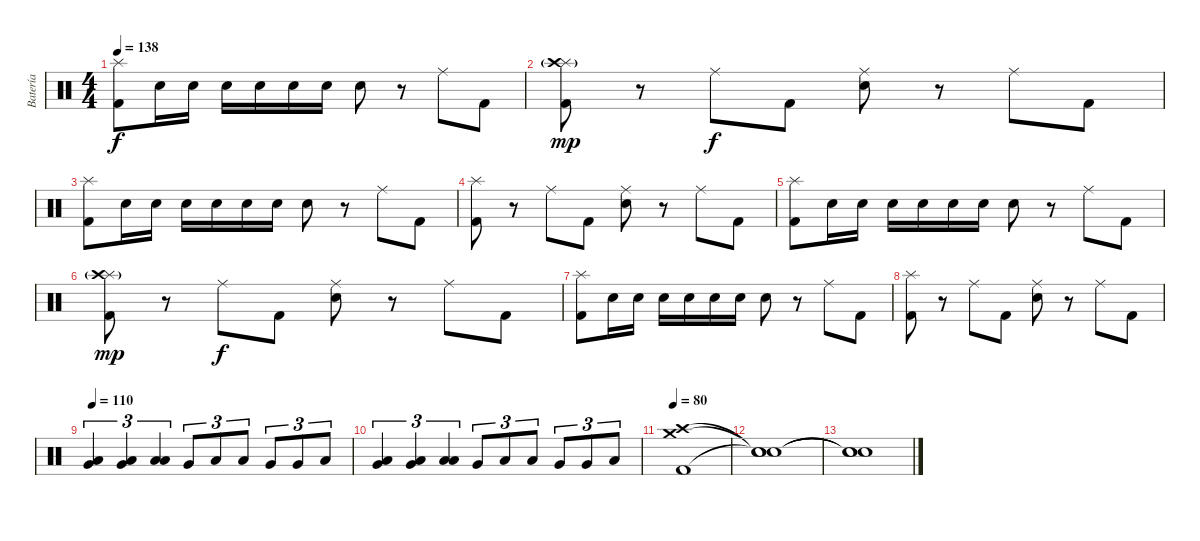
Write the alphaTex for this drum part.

\track ("Batería" "Batería") {instrument percussion}
\staff {score}
\articulation defaults
\ts (4 4)
\tempo 138
\clef neutral
\ks c
("Splash (hit)" "Kick (hit) 2").8{dy f} "Snare (hit) 2".16 "Snare (hit) 2".16 "Snare (hit) 2".16 "Snare (hit) 2".16 "Snare (hit) 2".16 "Snare (hit) 2".16 "Snare (hit) 2".8 r.8 "Ride (middle)".8 "Kick (hit) 2".8 |
("Splash (hit)" "Crash high (hit)"{g} "Kick (hit) 2").8{dy mp} r.8 "Ride (middle)".8{dy f} "Kick (hit) 2".8 ("Ride (middle)" "Snare (hit) 2").8 r.8 "Ride (middle)".8 "Kick (hit) 2".8 |
("Splash (hit)" "Kick (hit) 2").8 "Snare (hit) 2".16 "Snare (hit) 2".16 "Snare (hit) 2".16 "Snare (hit) 2".16 "Snare (hit) 2".16 "Snare (hit) 2".16 "Snare (hit) 2".8 r.8 "Ride (middle)".8 "Kick (hit) 2".8 |
("Splash (hit)" "Kick (hit) 2").8 r.8 "Ride (middle)".8 "Kick (hit) 2".8 ("Ride (middle)" "Snare (hit) 2").8 r.8 "Ride (middle)".8 "Kick (hit) 2".8 |
("Splash (hit)" "Kick (hit) 2").8 "Snare (hit) 2".16 "Snare (hit) 2".16 "Snare (hit) 2".16 "Snare (hit) 2".16 "Snare (hit) 2".16 "Snare (hit) 2".16 "Snare (hit) 2".8 r.8 "Ride (middle)".8 "Kick (hit) 2".8 |
("Splash (hit)" "Crash high (hit)"{g} "Kick (hit) 2").8{dy mp} r.8 "Ride (middle)".8{dy f} "Kick (hit) 2".8 ("Ride (middle)" "Snare (hit) 2").8 r.8 "Ride (middle)".8 "Kick (hit) 2".8 |
("Splash (hit)" "Kick (hit) 2").8 "Snare (hit) 2".16 "Snare (hit) 2".16 "Snare (hit) 2".16 "Snare (hit) 2".16 "Snare (hit) 2".16 "Snare (hit) 2".16 "Snare (hit) 2".8 r.8 "Ride (middle)".8 "Kick (hit) 2".8 |
("Splash (hit)" "Kick (hit) 2").8 r.8 "Ride (middle)".8 "Kick (hit) 2".8 ("Ride (middle)" "Snare (hit) 2").8 r.8 "Ride (middle)".8 "Kick (hit) 2".8 |
\tempo 110
("Low Tom (hit)" "Very Low Tom (hit)").4{tu (3 2)} ("Low Tom (hit)" "Very Low Tom (hit)").4{tu (3 2)} ("Low Floor Tom (hit)" "Low Floor Tom (hit)").4{tu (3 2)} "Very Low Tom (hit)".8{tu (3 2)} "Low Tom (hit)".8{tu (3 2)} "Low Tom (hit)".8{tu (3 2)} "Very Low Tom (hit)".8{tu (3 2)} "Very Low Tom (hit)".8{tu (3 2)} "Low Floor Tom (hit)".8{tu (3 2)} |
("Low Tom (hit)" "Very Low Tom (hit)").4{tu (3 2)} ("Low Tom (hit)" "Very Low Tom (hit)").4{tu (3 2)} ("Low Floor Tom (hit)" "Low Floor Tom (hit)").4{tu (3 2)} "Very Low Tom (hit)".8{tu (3 2)} "Low Tom (hit)".8{tu (3 2)} "Low Tom (hit)".8{tu (3 2)} "Very Low Tom (hit)".8{tu (3 2)} "Very Low Tom (hit)".8{tu (3 2)} "Low Floor Tom (hit)".8{tu (3 2)} |
\tempo 80
("Crash high (hit)" "Crash medium (hit)" "Kick (hit) 2").1 |
("Snare (hit)"{t} "Snare (hit)"{t} "Snare (hit)"{t}).1 |
("Snare (hit)"{t} "Snare (hit)"{t} "Snare (hit)"{t}).1
